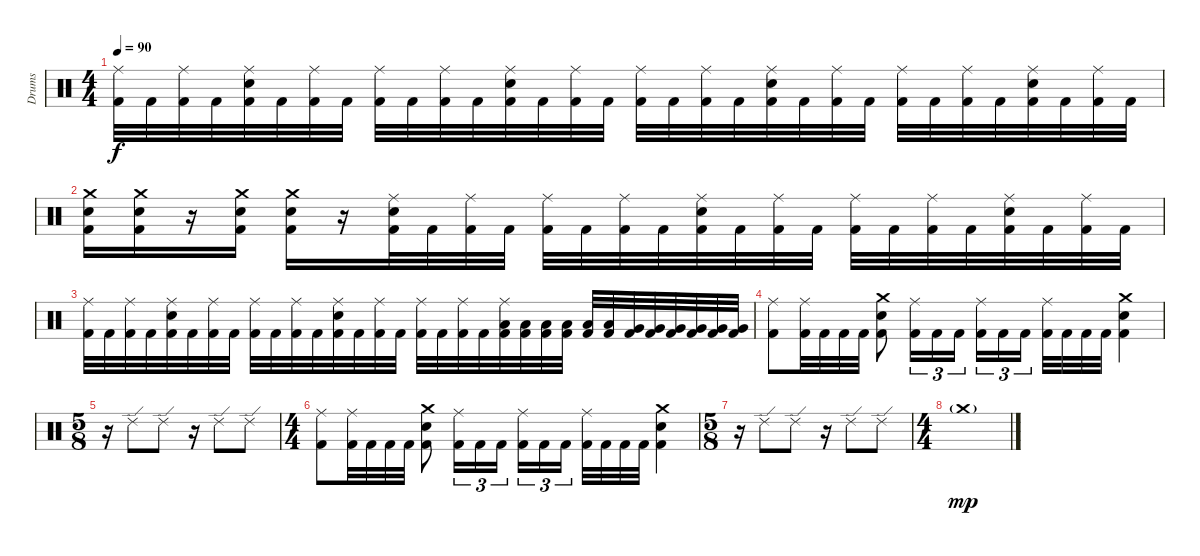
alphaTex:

\track ("Drums" "Drums") {instrument percussion}
\staff {score}
\articulation defaults
\ts (4 4)
\tempo 90
\clef neutral
\ks c
("Ride (middle)" "Kick (hit) 2").32{dy f} "Kick (hit) 2".32 ("Ride (middle)" "Kick (hit) 2").32 "Kick (hit) 2".32 ("Ride (middle)" "Electric Snare (hit)" "Kick (hit) 2").32 "Kick (hit) 2".32 ("Ride (middle)" "Kick (hit) 2").32 "Kick (hit) 2".32 ("Ride (middle)" "Kick (hit) 2").32 "Kick (hit) 2".32 ("Ride (middle)" "Kick (hit) 2").32 "Kick (hit) 2".32 ("Ride (middle)" "Electric Snare (hit)" "Kick (hit) 2").32 "Kick (hit) 2".32 ("Ride (middle)" "Kick (hit) 2").32 "Kick (hit) 2".32 ("Ride (middle)" "Kick (hit) 2").32 "Kick (hit) 2".32 ("Ride (middle)" "Kick (hit) 2").32 "Kick (hit) 2".32 ("Ride (middle)" "Electric Snare (hit)" "Kick (hit) 2").32 "Kick (hit) 2".32 ("Ride (middle)" "Kick (hit) 2").32 "Kick (hit) 2".32 ("Ride (middle)" "Kick (hit) 2").32 "Kick (hit) 2".32 ("Ride (middle)" "Kick (hit) 2").32 "Kick (hit) 2".32 ("Ride (middle)" "Electric Snare (hit)" "Kick (hit) 2").32 "Kick (hit) 2".32 ("Ride (middle)" "Kick (hit) 2").32 "Kick (hit) 2".32 |
("Crash medium (hit)" "Electric Snare (hit)" "Kick (hit) 2").16 ("Crash medium (hit)" "Electric Snare (hit)" "Kick (hit) 2").16 r.16 ("Crash medium (hit)" "Electric Snare (hit)" "Kick (hit) 2").16 ("Crash medium (hit)" "Electric Snare (hit)" "Kick (hit) 2").16 r.16 ("Ride (middle)" "Electric Snare (hit)" "Kick (hit) 2").32 "Kick (hit) 2".32 ("Ride (middle)" "Kick (hit) 2").32 "Kick (hit) 2".32 ("Ride (middle)" "Kick (hit) 2").32 "Kick (hit) 2".32 ("Ride (middle)" "Kick (hit) 2").32 "Kick (hit) 2".32 ("Ride (middle)" "Electric Snare (hit)" "Kick (hit) 2").32 "Kick (hit) 2".32 ("Ride (middle)" "Kick (hit) 2").32 "Kick (hit) 2".32 ("Ride (middle)" "Kick (hit) 2").32 "Kick (hit) 2".32 ("Ride (middle)" "Kick (hit) 2").32 "Kick (hit) 2".32 ("Ride (middle)" "Electric Snare (hit)" "Kick (hit) 2").32 "Kick (hit) 2".32 ("Ride (middle)" "Kick (hit) 2").32 "Kick (hit) 2".32 |
("Ride (middle)" "Kick (hit) 2").32 "Kick (hit) 2".32 ("Ride (middle)" "Kick (hit) 2").32 "Kick (hit) 2".32 ("Ride (middle)" "Electric Snare (hit)" "Kick (hit) 2").32 "Kick (hit) 2".32 ("Ride (middle)" "Kick (hit) 2").32 "Kick (hit) 2".32 ("Ride (middle)" "Kick (hit) 2").32 "Kick (hit) 2".32 ("Ride (middle)" "Kick (hit) 2").32 "Kick (hit) 2".32 ("Ride (middle)" "Electric Snare (hit)" "Kick (hit) 2").32 "Kick (hit) 2".32 ("Ride (middle)" "Kick (hit) 2").32 "Kick (hit) 2".32 ("Ride (middle)" "Kick (hit) 2").32 "Kick (hit) 2".32 ("Ride (middle)" "Kick (hit) 2").32 "Kick (hit) 2".32 ("Ride (middle)" "Low Tom (hit)" "Kick (hit) 2").32 ("Low Tom (hit)" "Kick (hit) 2").32 ("Low Tom (hit)" "Kick (hit) 2").32 ("Low Tom (hit)" "Kick (hit) 2").32 ("Low Tom (hit)" "Kick (hit) 2").32 ("Low Tom (hit)" "Kick (hit) 2").32 ("Very Low Tom (hit)" "Kick (hit) 2").32 ("Very Low Tom (hit)" "Kick (hit) 2").32 ("Very Low Tom (hit)" "Kick (hit) 2").32 ("Very Low Tom (hit)" "Kick (hit) 2").32 ("Very Low Tom (hit)" "Kick (hit) 2").32 ("Very Low Tom (hit)" "Kick (hit) 2").32 |
("Ride (middle)" "Kick (hit) 2").8 ("Ride (middle)" "Kick (hit) 2").32 "Kick (hit) 2".32 "Kick (hit) 2".32 "Kick (hit) 2".32 ("Crash medium (hit)" "Electric Snare (hit)" "Kick (hit) 2").8 ("Ride (middle)" "Kick (hit) 2").16{tu (3 2)} "Kick (hit) 2".16{tu (3 2)} "Kick (hit) 2".16{tu (3 2)} ("Ride (middle)" "Kick (hit) 2").16{tu (3 2)} "Kick (hit) 2".16{tu (3 2)} "Kick (hit) 2".16{tu (3 2)} ("Ride (middle)" "Kick (hit) 2").32 "Kick (hit) 2".32 "Kick (hit) 2".32 "Kick (hit) 2".32 ("Crash medium (hit)" "Electric Snare (hit)" "Kick (hit) 2").4 |
\ts (5 8)
r.16 "Ride (edge) 2".8 "Ride (edge) 2".8 r.16 "Ride (edge) 2".8 "Ride (edge) 2".8 |
\ts (4 4)
("Ride (middle)" "Kick (hit) 2").8 ("Ride (middle)" "Kick (hit) 2").32 "Kick (hit) 2".32 "Kick (hit) 2".32 "Kick (hit) 2".32 ("Crash medium (hit)" "Electric Snare (hit)" "Kick (hit) 2").8 ("Ride (middle)" "Kick (hit) 2").16{tu (3 2)} "Kick (hit) 2".16{tu (3 2)} "Kick (hit) 2".16{tu (3 2)} ("Ride (middle)" "Kick (hit) 2").16{tu (3 2)} "Kick (hit) 2".16{tu (3 2)} "Kick (hit) 2".16{tu (3 2)} ("Ride (middle)" "Kick (hit) 2").32 "Kick (hit) 2".32 "Kick (hit) 2".32 "Kick (hit) 2".32 ("Crash medium (hit)" "Electric Snare (hit)" "Kick (hit) 2").4 |
\ts (5 8)
r.16 "Ride (edge) 2".8 "Ride (edge) 2".8 r.16 "Ride (edge) 2".8 "Ride (edge) 2".8 |
\ts (4 4)
"Crash medium (hit)"{g}.1{dy mp}
